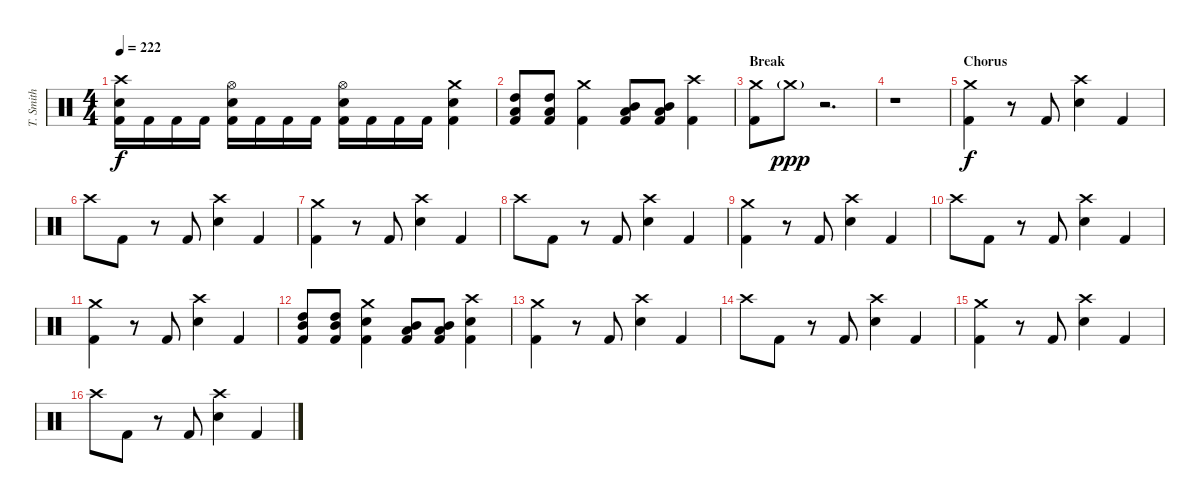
\track ("T. Smith" "T. Smith") {instrument percussion}
\staff {score}
\articulation defaults
\ts (4 4)
\tempo 222
\clef neutral
\ks c
("Crash high (hit)" "Electric Snare (hit)" "Kick (hit) 2").16{dy f} "Kick (hit) 2".16 "Kick (hit) 2".16 "Kick (hit) 2".16 ("Hi-Hat (open)" "Electric Snare (hit)" "Kick (hit) 2").16 "Kick (hit) 2".16 "Kick (hit) 2".16 "Kick (hit) 2".16 ("Hi-Hat (open)" "Electric Snare (hit)" "Kick (hit) 2").16 "Kick (hit) 2".16 "Kick (hit) 2".16 "Kick (hit) 2".16 ("Crash medium (hit)" "Electric Snare (hit)" "Kick (hit) 2").4 |
("High Tom (hit)" "Low Tom (hit)" "Kick (hit) 2").8 ("High Tom (hit)" "Low Tom (hit)" "Kick (hit) 2").8 ("Crash medium (hit)" "Kick (hit) 2").4 ("Mid Tom (hit)" "Low Tom (hit)" "Kick (hit) 2").8 ("Mid Tom (hit)" "Low Tom (hit)" "Kick (hit) 2").8 ("Crash high (hit)" "Kick (hit) 2").4 |
\section ("" "Break")
("Crash medium (hit)" "Kick (hit) 2").8 "Crash medium (hit)"{g}.8{dy ppp} r.2{d} |
r.1 |
\section ("" "Chorus")
("Crash medium (hit)" "Kick (hit) 2").4{dy f} r.8 "Kick (hit) 2".8 ("Crash high (hit)" "Electric Snare (hit)").4 "Kick (hit) 2".4 |
"Crash high (hit)".8 "Kick (hit) 2".8 r.8 "Kick (hit) 2".8 ("Crash high (hit)" "Electric Snare (hit)").4 "Kick (hit) 2".4 |
("Crash medium (hit)" "Kick (hit) 2").4 r.8 "Kick (hit) 2".8 ("Crash high (hit)" "Electric Snare (hit)").4 "Kick (hit) 2".4 |
"Crash high (hit)".8 "Kick (hit) 2".8 r.8 "Kick (hit) 2".8 ("Crash high (hit)" "Electric Snare (hit)").4 "Kick (hit) 2".4 |
("Crash medium (hit)" "Kick (hit) 2").4 r.8 "Kick (hit) 2".8 ("Crash high (hit)" "Electric Snare (hit)").4 "Kick (hit) 2".4 |
"Crash high (hit)".8 "Kick (hit) 2".8 r.8 "Kick (hit) 2".8 ("Crash high (hit)" "Electric Snare (hit)").4 "Kick (hit) 2".4 |
("Crash medium (hit)" "Kick (hit) 2").4 r.8 "Kick (hit) 2".8 ("Crash high (hit)" "Electric Snare (hit)").4 "Kick (hit) 2".4 |
("Mid Tom (hit)" "High Tom (hit)" "Kick (hit) 2").8 ("Mid Tom (hit)" "High Tom (hit)" "Kick (hit) 2").8 ("Crash medium (hit)" "Electric Snare (hit)" "Kick (hit) 2").4 ("Mid Tom (hit)" "Low Tom (hit)" "Kick (hit) 2").8 ("Mid Tom (hit)" "Low Tom (hit)" "Kick (hit) 2").8 ("Crash high (hit)" "Electric Snare (hit)" "Kick (hit) 2").4 |
("Crash medium (hit)" "Kick (hit) 2").4 r.8 "Kick (hit) 2".8 ("Crash high (hit)" "Electric Snare (hit)").4 "Kick (hit) 2".4 |
"Crash high (hit)".8 "Kick (hit) 2".8 r.8 "Kick (hit) 2".8 ("Crash high (hit)" "Electric Snare (hit)").4 "Kick (hit) 2".4 |
("Crash medium (hit)" "Kick (hit) 2").4 r.8 "Kick (hit) 2".8 ("Crash high (hit)" "Electric Snare (hit)").4 "Kick (hit) 2".4 |
"Crash high (hit)".8 "Kick (hit) 2".8 r.8 "Kick (hit) 2".8 ("Crash high (hit)" "Electric Snare (hit)").4 "Kick (hit) 2".4
